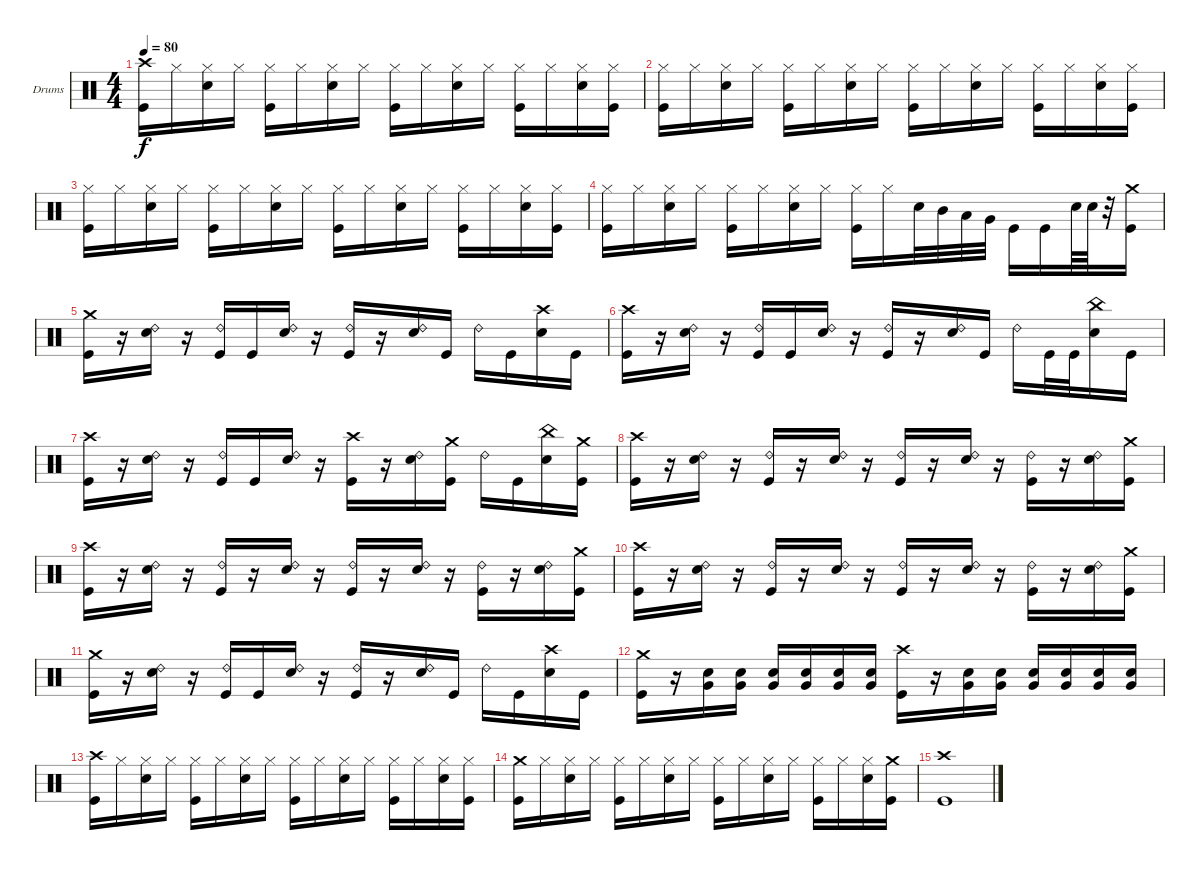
\defaultSystemsLayout 4
\bracketExtendMode groupsimilarinstruments
\firstSystemTrackNameOrientation horizontal
\otherSystemsTrackNameOrientation horizontal
\track ("Francesco Jovino" "Drums") {instrument percussion}
\staff {score}
\articulation defaults
\ts (4 4)
\tempo 80
\clef neutral
\ks c
("Kick (hit)" "Crash high (hit)").16{dy f} "Hi-Hat (closed)".16 ("Snare (hit) 2" "Hi-Hat (closed)").16 "Hi-Hat (closed)".16 ("Kick (hit)" "Hi-Hat (closed)").16 "Hi-Hat (closed)".16 ("Snare (hit) 2" "Hi-Hat (closed)").16 "Hi-Hat (closed)".16 ("Kick (hit)" "Hi-Hat (closed)").16 "Hi-Hat (closed)".16 ("Snare (hit) 2" "Hi-Hat (closed)").16 "Hi-Hat (closed)".16 ("Kick (hit)" "Hi-Hat (closed)").16 "Hi-Hat (closed)".16 ("Snare (hit) 2" "Hi-Hat (closed)").16 ("Kick (hit)" "Hi-Hat (closed)").16 |
("Kick (hit)" "Hi-Hat (closed)").16 "Hi-Hat (closed)".16 ("Snare (hit) 2" "Hi-Hat (closed)").16 "Hi-Hat (closed)".16 ("Kick (hit)" "Hi-Hat (closed)").16 "Hi-Hat (closed)".16 ("Snare (hit) 2" "Hi-Hat (closed)").16 "Hi-Hat (closed)".16 ("Kick (hit)" "Hi-Hat (closed)").16 "Hi-Hat (closed)".16 ("Snare (hit) 2" "Hi-Hat (closed)").16 "Hi-Hat (closed)".16 ("Kick (hit)" "Hi-Hat (closed)").16 "Hi-Hat (closed)".16 ("Snare (hit) 2" "Hi-Hat (closed)").16 ("Kick (hit)" "Hi-Hat (closed)").16 |
("Kick (hit)" "Hi-Hat (closed)").16 "Hi-Hat (closed)".16 ("Snare (hit) 2" "Hi-Hat (closed)").16 "Hi-Hat (closed)".16 ("Kick (hit)" "Hi-Hat (closed)").16 "Hi-Hat (closed)".16 ("Snare (hit) 2" "Hi-Hat (closed)").16 "Hi-Hat (closed)".16 ("Kick (hit)" "Hi-Hat (closed)").16 "Hi-Hat (closed)".16 ("Snare (hit) 2" "Hi-Hat (closed)").16 "Hi-Hat (closed)".16 ("Kick (hit)" "Hi-Hat (closed)").16 "Hi-Hat (closed)".16 ("Snare (hit) 2" "Hi-Hat (closed)").16 ("Kick (hit)" "Hi-Hat (closed)").16 |
("Kick (hit)" "Hi-Hat (closed)").16 "Hi-Hat (closed)".16 ("Snare (hit) 2" "Hi-Hat (closed)").16 "Hi-Hat (closed)".16 ("Kick (hit)" "Hi-Hat (closed)").16 "Hi-Hat (closed)".16 ("Hi-Hat (closed)" "Snare (hit) 2").16 "Hi-Hat (closed)".16 ("Kick (hit)" "Hi-Hat (closed)").16 "Hi-Hat (closed)".16 "Snare (hit) 2".32 "Mid Tom (hit)".32 "Low Tom (hit)".32 "Very Low Tom (hit)".32 "Kick (hit)".16 "Kick (hit)".16 "Snare (hit) 2".64 "Snare (hit) 2".64 r.32 ("Kick (hit)" "Crash medium (hit)").16 |
("Kick (hit)" "Crash medium (hit)").16 r.16 ("Snare (hit) 2" "Ride (bell) 2").16 r.16 ("Kick (hit)" "Ride (bell) 2").16 "Kick (hit)".16 ("Snare (hit) 2" "Ride (bell) 2").16 r.16 ("Kick (hit)" "Ride (bell) 2").16 r.16 ("Ride (bell) 2" "Snare (hit) 2").16 "Kick (hit)".16 "Ride (bell) 2".16 "Kick (hit)".16 ("Snare (hit) 2" "Crash high (hit)").16 "Kick (hit)".16 |
("Kick (hit)" "Crash high (hit)").16 r.16 ("Snare (hit) 2" "Ride (bell) 2").16 r.16 ("Kick (hit)" "Ride (bell) 2").16 "Kick (hit)".16 ("Snare (hit) 2" "Ride (bell) 2").16 r.16 ("Kick (hit)" "Ride (bell) 2").16 r.16 ("Ride (bell) 2" "Snare (hit) 2").16 "Kick (hit)".16 "Ride (bell) 2".16 "Kick (hit)".32 "Kick (hit)".32 ("Snare (hit) 2" "China (hit)").16 "Kick (hit)".16 |
("Kick (hit)" "Crash high (hit)").16 r.16 ("Snare (hit) 2" "Ride (bell) 2").16 r.16 ("Kick (hit)" "Ride (bell) 2").16 "Kick (hit)".16 ("Snare (hit) 2" "Ride (bell) 2").16 r.16 ("Kick (hit)" "Crash high (hit)").16 r.16 ("Ride (bell) 2" "Snare (hit) 2").16 ("Kick (hit)" "Crash medium (hit)").16 "Ride (bell) 2".16 "Kick (hit)".16 ("Snare (hit) 2" "China (hit)").16 ("Kick (hit)" "Crash medium (hit)").16 |
("Kick (hit)" "Crash high (hit)").16 r.16 ("Snare (hit) 2" "Ride (bell) 2").16 r.16 ("Kick (hit)" "Ride (bell) 2").16 r.16 ("Snare (hit) 2" "Ride (bell) 2").16 r.16 ("Kick (hit)" "Ride (bell) 2").16 r.16 ("Snare (hit) 2" "Ride (bell) 2").16 r.16 ("Kick (hit)" "Ride (bell) 2").16 r.16 ("Snare (hit) 2" "Ride (bell) 2").16 ("Kick (hit)" "Crash medium (hit)").16 |
("Kick (hit)" "Crash high (hit)").16 r.16 ("Snare (hit) 2" "Ride (bell) 2").16 r.16 ("Kick (hit)" "Ride (bell) 2").16 r.16 ("Snare (hit) 2" "Ride (bell) 2").16 r.16 ("Kick (hit)" "Ride (bell) 2").16 r.16 ("Snare (hit) 2" "Ride (bell) 2").16 r.16 ("Kick (hit)" "Ride (bell) 2").16 r.16 ("Snare (hit) 2" "Ride (bell) 2").16 ("Kick (hit)" "Crash medium (hit)").16 |
("Kick (hit)" "Crash high (hit)").16 r.16 ("Snare (hit) 2" "Ride (bell) 2").16 r.16 ("Kick (hit)" "Ride (bell) 2").16 r.16 ("Snare (hit) 2" "Ride (bell) 2").16 r.16 ("Kick (hit)" "Ride (bell) 2").16 r.16 ("Snare (hit) 2" "Ride (bell) 2").16 r.16 ("Kick (hit)" "Ride (bell) 2").16 r.16 ("Snare (hit) 2" "Ride (bell) 2").16 ("Kick (hit)" "Crash medium (hit)").16 |
("Kick (hit)" "Crash medium (hit)").16 r.16 ("Snare (hit) 2" "Ride (bell) 2").16 r.16 ("Kick (hit)" "Ride (bell) 2").16 "Kick (hit)".16 ("Snare (hit) 2" "Ride (bell) 2").16 r.16 ("Kick (hit)" "Ride (bell) 2").16 r.16 ("Ride (bell) 2" "Snare (hit) 2").16 "Kick (hit)".16 "Ride (bell) 2".16 "Kick (hit)".16 ("Snare (hit) 2" "Crash high (hit)").16 "Kick (hit)".16 |
("Kick (hit)" "Crash medium (hit)").16 r.16 ("Snare (hit) 2" "Very Low Tom (hit)").16 ("Snare (hit) 2" "Very Low Tom (hit)").16 ("Snare (hit) 2" "Very Low Tom (hit)").16 ("Snare (hit) 2" "Very Low Tom (hit)").16 ("Snare (hit) 2" "Very Low Tom (hit)").16 ("Snare (hit) 2" "Very Low Tom (hit)").16 ("Kick (hit)" "Crash high (hit)").16 r.16 ("Very Low Tom (hit)" "Snare (hit) 2").16 ("Very Low Tom (hit)" "Snare (hit) 2").16 ("Very Low Tom (hit)" "Snare (hit) 2").16 ("Very Low Tom (hit)" "Snare (hit) 2").16 ("Very Low Tom (hit)" "Snare (hit) 2").16 ("Very Low Tom (hit)" "Snare (hit) 2").16 |
("Kick (hit)" "Crash high (hit)").16 "Hi-Hat (closed)".16 ("Snare (hit) 2" "Hi-Hat (closed)").16 "Hi-Hat (closed)".16 ("Kick (hit)" "Hi-Hat (closed)").16 "Hi-Hat (closed)".16 ("Snare (hit) 2" "Hi-Hat (closed)").16 "Hi-Hat (closed)".16 ("Kick (hit)" "Hi-Hat (closed)").16 "Hi-Hat (closed)".16 ("Snare (hit) 2" "Hi-Hat (closed)").16 "Hi-Hat (closed)".16 ("Kick (hit)" "Hi-Hat (closed)").16 "Hi-Hat (closed)".16 ("Snare (hit) 2" "Hi-Hat (closed)").16 ("Kick (hit)" "Hi-Hat (closed)").16 |
("Kick (hit)" "Crash medium (hit)").16 "Hi-Hat (closed)".16 ("Snare (hit) 2" "Hi-Hat (closed)").16 "Hi-Hat (closed)".16 ("Kick (hit)" "Hi-Hat (closed)").16 "Hi-Hat (closed)".16 ("Snare (hit) 2" "Hi-Hat (closed)").16 "Hi-Hat (closed)".16 ("Kick (hit)" "Hi-Hat (closed)").16 "Hi-Hat (closed)".16 ("Snare (hit) 2" "Hi-Hat (closed)").16 "Hi-Hat (closed)".16 ("Kick (hit)" "Hi-Hat (closed)").16 "Hi-Hat (closed)".16 ("Snare (hit) 2" "Hi-Hat (closed)").16 ("Kick (hit)" "Crash medium (hit)").16 |
("Kick (hit)" "Crash high (hit)").1
